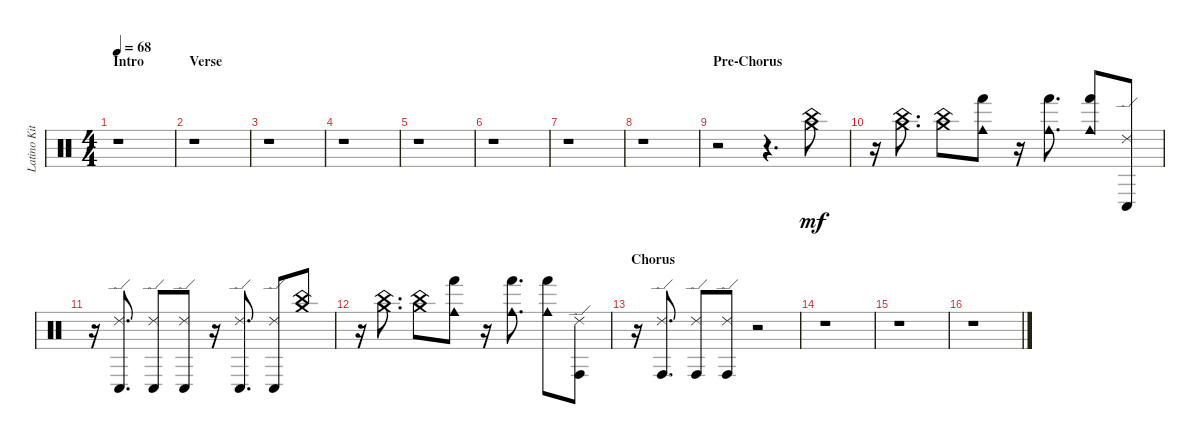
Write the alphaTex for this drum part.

\track ("Latino Kit" "Latino Kit") {instrument percussion}
\staff {score}
\articulation defaults
\ts (4 4)
\section ("" "Intro")
\tempo 68
\clef neutral
\ks aminor
r.1{dy mf} |
\section ("" "Verse")
r.1 |
r.1 |
r.1 |
r.1 |
r.1 |
r.1 |
r.1 |
\section ("" "Pre-Chorus")
r.2 r.4{d} ("China (hit)" "Crash medium (hit)").8 |
r.16 ("China (hit)" "Crash medium (hit)").8{d} ("China (hit)" "Crash medium (hit)").8 ("Cowbell medium (hit)" "Hand (hit)").8 r.16 ("Cowbell medium (hit)" "Hand (hit)").8{d} ("Cowbell medium (hit)" "Hand (hit)").8 ("Ride (edge) 2" "Conga low (hit)").8 |
r.16 ("Ride (edge) 2" "Conga low (hit)").8{d} ("Ride (edge) 2" "Conga low (hit)").8 ("Ride (edge) 2" "Conga low (hit)").8 r.16 ("Ride (edge) 2" "Conga low (hit)").8{d} ("Ride (edge) 2" "Conga low (hit)").8 ("China (hit)" "Crash medium (hit)").8 |
r.16 ("China (hit)" "Crash medium (hit)").8{d} ("China (hit)" "Crash medium (hit)").8 ("Cowbell medium (hit)" "Hand (hit)").8 r.16 ("Cowbell medium (hit)" "Hand (hit)").8{d} ("Cowbell medium (hit)" "Hand (hit)").8 ("Ride (edge) 2" "Conga high (hit)").8 |
\section ("" "Chorus")
r.16 ("Ride (edge) 2" "Conga high (hit)").8{d} ("Ride (edge) 2" "Conga high (hit)").8 ("Ride (edge) 2" "Conga high (hit)").8 r.2 |
r.1 |
r.1 |
r.1
